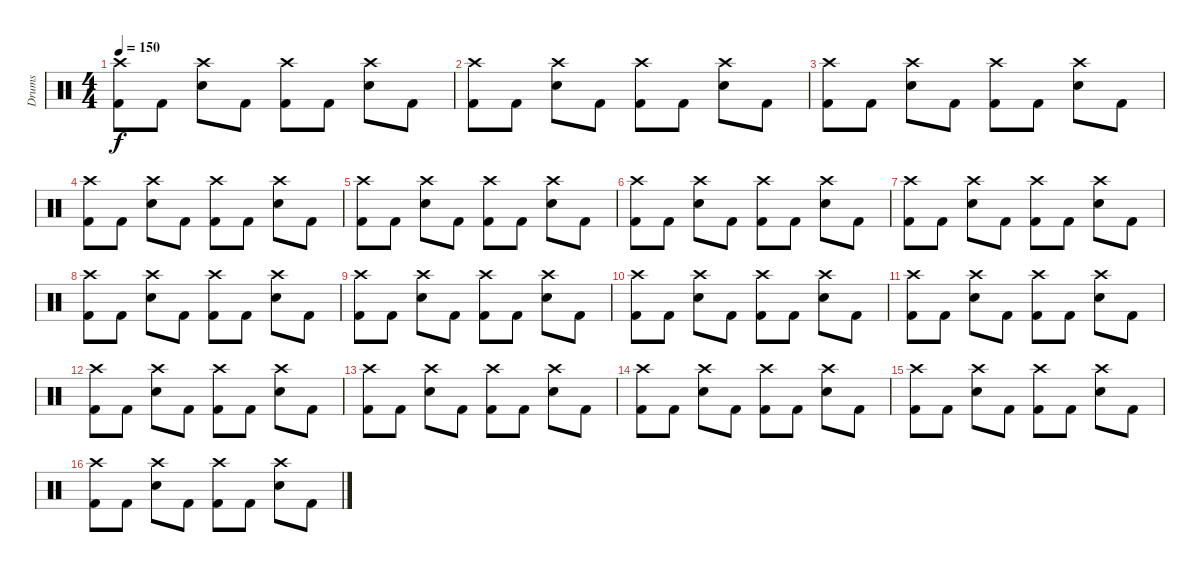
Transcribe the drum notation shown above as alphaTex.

\track ("Drums" "Drums") {instrument percussion}
\staff
\articulation defaults
\ts (4 4)
\tempo 150
\clef neutral
\ks c
("Crash high (hit)" "Kick (hit) 2").8{dy f} "Kick (hit) 2".8 ("Crash high (hit)" "Snare (hit) 2").8 "Kick (hit) 2".8 ("Crash high (hit)" "Kick (hit) 2").8 "Kick (hit) 2".8 ("Crash high (hit)" "Snare (hit) 2").8 "Kick (hit) 2".8 |
("Crash high (hit)" "Kick (hit) 2").8 "Kick (hit) 2".8 ("Crash high (hit)" "Snare (hit) 2").8 "Kick (hit) 2".8 ("Crash high (hit)" "Kick (hit) 2").8 "Kick (hit) 2".8 ("Crash high (hit)" "Snare (hit) 2").8 "Kick (hit) 2".8 |
("Crash high (hit)" "Kick (hit) 2").8 "Kick (hit) 2".8 ("Crash high (hit)" "Snare (hit) 2").8 "Kick (hit) 2".8 ("Crash high (hit)" "Kick (hit) 2").8 "Kick (hit) 2".8 ("Crash high (hit)" "Snare (hit) 2").8 "Kick (hit) 2".8 |
("Crash high (hit)" "Kick (hit) 2").8 "Kick (hit) 2".8 ("Crash high (hit)" "Snare (hit) 2").8 "Kick (hit) 2".8 ("Crash high (hit)" "Kick (hit) 2").8 "Kick (hit) 2".8 ("Crash high (hit)" "Snare (hit) 2").8 "Kick (hit) 2".8 |
("Crash high (hit)" "Kick (hit) 2").8 "Kick (hit) 2".8 ("Crash high (hit)" "Snare (hit) 2").8 "Kick (hit) 2".8 ("Crash high (hit)" "Kick (hit) 2").8 "Kick (hit) 2".8 ("Crash high (hit)" "Snare (hit) 2").8 "Kick (hit) 2".8 |
("Crash high (hit)" "Kick (hit) 2").8 "Kick (hit) 2".8 ("Crash high (hit)" "Snare (hit) 2").8 "Kick (hit) 2".8 ("Crash high (hit)" "Kick (hit) 2").8 "Kick (hit) 2".8 ("Crash high (hit)" "Snare (hit) 2").8 "Kick (hit) 2".8 |
("Crash high (hit)" "Kick (hit) 2").8 "Kick (hit) 2".8 ("Crash high (hit)" "Snare (hit) 2").8 "Kick (hit) 2".8 ("Crash high (hit)" "Kick (hit) 2").8 "Kick (hit) 2".8 ("Crash high (hit)" "Snare (hit) 2").8 "Kick (hit) 2".8 |
("Crash high (hit)" "Kick (hit) 2").8 "Kick (hit) 2".8 ("Crash high (hit)" "Snare (hit) 2").8 "Kick (hit) 2".8 ("Crash high (hit)" "Kick (hit) 2").8 "Kick (hit) 2".8 ("Crash high (hit)" "Snare (hit) 2").8 "Kick (hit) 2".8 |
("Crash high (hit)" "Kick (hit) 2").8 "Kick (hit) 2".8 ("Crash high (hit)" "Snare (hit) 2").8 "Kick (hit) 2".8 ("Crash high (hit)" "Kick (hit) 2").8 "Kick (hit) 2".8 ("Crash high (hit)" "Snare (hit) 2").8 "Kick (hit) 2".8 |
("Crash high (hit)" "Kick (hit) 2").8 "Kick (hit) 2".8 ("Crash high (hit)" "Snare (hit) 2").8 "Kick (hit) 2".8 ("Crash high (hit)" "Kick (hit) 2").8 "Kick (hit) 2".8 ("Crash high (hit)" "Snare (hit) 2").8 "Kick (hit) 2".8 |
("Crash high (hit)" "Kick (hit) 2").8 "Kick (hit) 2".8 ("Crash high (hit)" "Snare (hit) 2").8 "Kick (hit) 2".8 ("Crash high (hit)" "Kick (hit) 2").8 "Kick (hit) 2".8 ("Crash high (hit)" "Snare (hit) 2").8 "Kick (hit) 2".8 |
("Crash high (hit)" "Kick (hit) 2").8 "Kick (hit) 2".8 ("Crash high (hit)" "Snare (hit) 2").8 "Kick (hit) 2".8 ("Crash high (hit)" "Kick (hit) 2").8 "Kick (hit) 2".8 ("Crash high (hit)" "Snare (hit) 2").8 "Kick (hit) 2".8 |
("Crash high (hit)" "Kick (hit) 2").8 "Kick (hit) 2".8 ("Crash high (hit)" "Snare (hit) 2").8 "Kick (hit) 2".8 ("Crash high (hit)" "Kick (hit) 2").8 "Kick (hit) 2".8 ("Crash high (hit)" "Snare (hit) 2").8 "Kick (hit) 2".8 |
("Crash high (hit)" "Kick (hit) 2").8 "Kick (hit) 2".8 ("Crash high (hit)" "Snare (hit) 2").8 "Kick (hit) 2".8 ("Crash high (hit)" "Kick (hit) 2").8 "Kick (hit) 2".8 ("Crash high (hit)" "Snare (hit) 2").8 "Kick (hit) 2".8 |
("Crash high (hit)" "Kick (hit) 2").8 "Kick (hit) 2".8 ("Crash high (hit)" "Snare (hit) 2").8 "Kick (hit) 2".8 ("Crash high (hit)" "Kick (hit) 2").8 "Kick (hit) 2".8 ("Crash high (hit)" "Snare (hit) 2").8 "Kick (hit) 2".8 |
("Crash high (hit)" "Kick (hit) 2").8 "Kick (hit) 2".8 ("Crash high (hit)" "Snare (hit) 2").8 "Kick (hit) 2".8 ("Crash high (hit)" "Kick (hit) 2").8 "Kick (hit) 2".8 ("Crash high (hit)" "Snare (hit) 2").8 "Kick (hit) 2".8
